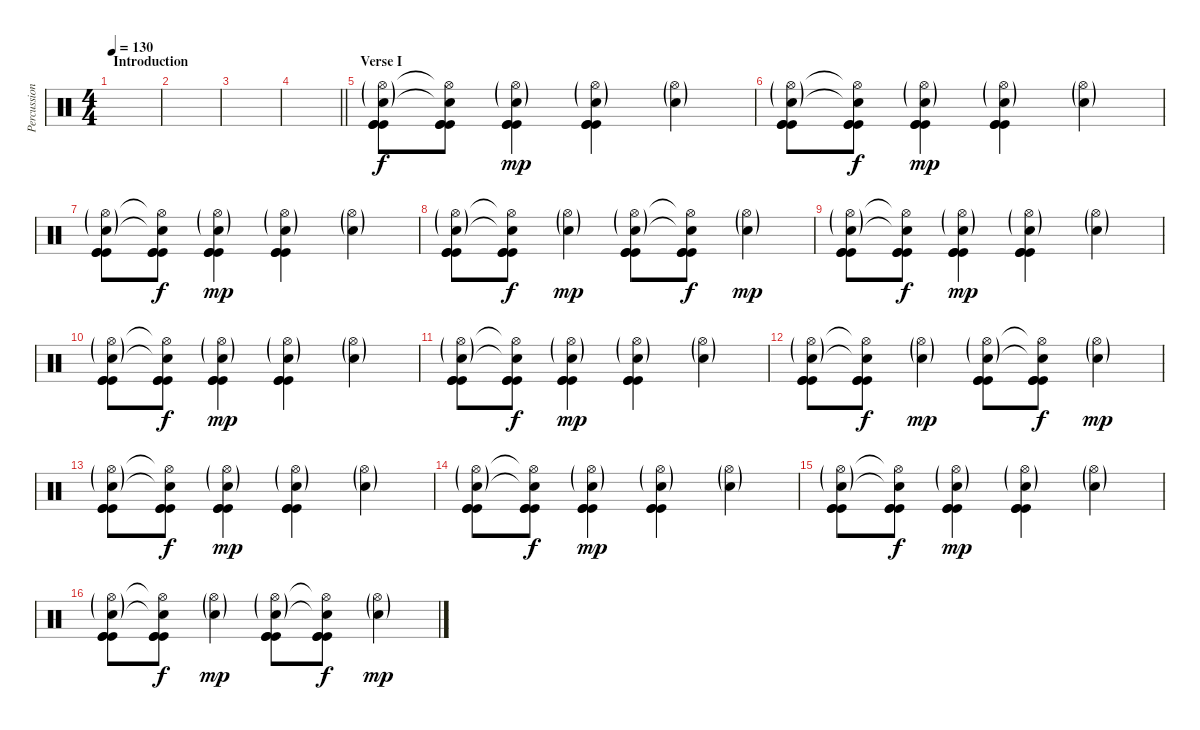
\track ("Percussion" "Percussion") {instrument percussion}
\staff {score}
\articulation defaults
\ts (4 4)
\section ("" "Introduction")
\tempo 130
\clef neutral
\ks c
|
|
|
\barLineRight lightlight
|
\section ("" "Verse I")
("Hi-Hat (open)"{g} "Snare (hit) 2"{g} "Kick (hit)" "Kick (hit)" "Kick (hit)").8 ("Hi-Hat (open)"{t} "Snare (hit) 2"{t} "Kick (hit)" "Kick (hit)" "Kick (hit)").8{dy f} ("Hi-Hat (open)"{g} "Snare (hit) 2"{g} "Kick (hit)" "Kick (hit)" "Kick (hit)").4{dy mp} ("Hi-Hat (open)"{g} "Snare (hit) 2"{g} "Kick (hit)" "Kick (hit)" "Kick (hit)").4 ("Hi-Hat (open)"{g} "Snare (hit) 2"{g}).4 |
("Hi-Hat (open)"{g} "Snare (hit) 2"{g} "Kick (hit)" "Kick (hit)" "Kick (hit)").8 ("Hi-Hat (open)"{t} "Snare (hit) 2"{t} "Kick (hit)" "Kick (hit)" "Kick (hit)").8{dy f} ("Hi-Hat (open)"{g} "Snare (hit) 2"{g} "Kick (hit)" "Kick (hit)" "Kick (hit)").4{dy mp} ("Hi-Hat (open)"{g} "Snare (hit) 2"{g} "Kick (hit)" "Kick (hit)" "Kick (hit)").4 ("Hi-Hat (open)"{g} "Snare (hit) 2"{g}).4 |
("Hi-Hat (open)"{g} "Snare (hit) 2"{g} "Kick (hit)" "Kick (hit)" "Kick (hit)").8 ("Hi-Hat (open)"{t} "Snare (hit) 2"{t} "Kick (hit)" "Kick (hit)" "Kick (hit)").8{dy f} ("Hi-Hat (open)"{g} "Snare (hit) 2"{g} "Kick (hit)" "Kick (hit)" "Kick (hit)").4{dy mp} ("Hi-Hat (open)"{g} "Snare (hit) 2"{g} "Kick (hit)" "Kick (hit)" "Kick (hit)").4 ("Hi-Hat (open)"{g} "Snare (hit) 2"{g}).4 |
("Hi-Hat (open)"{g} "Snare (hit) 2"{g} "Kick (hit)" "Kick (hit)" "Kick (hit)").8 ("Hi-Hat (open)"{t} "Snare (hit) 2"{t} "Kick (hit)" "Kick (hit)" "Kick (hit)").8{dy f} ("Hi-Hat (open)"{g} "Snare (hit) 2"{g}).4{dy mp} ("Hi-Hat (open)"{g} "Snare (hit) 2"{g} "Kick (hit)" "Kick (hit)" "Kick (hit)").8 ("Hi-Hat (open)"{t} "Snare (hit) 2"{t} "Kick (hit)" "Kick (hit)" "Kick (hit)").8{dy f} ("Hi-Hat (open)"{g} "Snare (hit) 2"{g}).4{dy mp} |
("Hi-Hat (open)"{g} "Snare (hit) 2"{g} "Kick (hit)" "Kick (hit)" "Kick (hit)").8 ("Hi-Hat (open)"{t} "Snare (hit) 2"{t} "Kick (hit)" "Kick (hit)" "Kick (hit)").8{dy f} ("Hi-Hat (open)"{g} "Snare (hit) 2"{g} "Kick (hit)" "Kick (hit)" "Kick (hit)").4{dy mp} ("Hi-Hat (open)"{g} "Snare (hit) 2"{g} "Kick (hit)" "Kick (hit)" "Kick (hit)").4 ("Hi-Hat (open)"{g} "Snare (hit) 2"{g}).4 |
("Hi-Hat (open)"{g} "Snare (hit) 2"{g} "Kick (hit)" "Kick (hit)" "Kick (hit)").8 ("Hi-Hat (open)"{t} "Snare (hit) 2"{t} "Kick (hit)" "Kick (hit)" "Kick (hit)").8{dy f} ("Hi-Hat (open)"{g} "Snare (hit) 2"{g} "Kick (hit)" "Kick (hit)" "Kick (hit)").4{dy mp} ("Hi-Hat (open)"{g} "Snare (hit) 2"{g} "Kick (hit)" "Kick (hit)" "Kick (hit)").4 ("Hi-Hat (open)"{g} "Snare (hit) 2"{g}).4 |
("Hi-Hat (open)"{g} "Snare (hit) 2"{g} "Kick (hit)" "Kick (hit)" "Kick (hit)").8 ("Hi-Hat (open)"{t} "Snare (hit) 2"{t} "Kick (hit)" "Kick (hit)" "Kick (hit)").8{dy f} ("Hi-Hat (open)"{g} "Snare (hit) 2"{g} "Kick (hit)" "Kick (hit)" "Kick (hit)").4{dy mp} ("Hi-Hat (open)"{g} "Snare (hit) 2"{g} "Kick (hit)" "Kick (hit)" "Kick (hit)").4 ("Hi-Hat (open)"{g} "Snare (hit) 2"{g}).4 |
("Hi-Hat (open)"{g} "Snare (hit) 2"{g} "Kick (hit)" "Kick (hit)" "Kick (hit)").8 ("Hi-Hat (open)"{t} "Snare (hit) 2"{t} "Kick (hit)" "Kick (hit)" "Kick (hit)").8{dy f} ("Hi-Hat (open)"{g} "Snare (hit) 2"{g}).4{dy mp} ("Hi-Hat (open)"{g} "Snare (hit) 2"{g} "Kick (hit)" "Kick (hit)" "Kick (hit)").8 ("Hi-Hat (open)"{t} "Snare (hit) 2"{t} "Kick (hit)" "Kick (hit)" "Kick (hit)").8{dy f} ("Hi-Hat (open)"{g} "Snare (hit) 2"{g}).4{dy mp} |
("Hi-Hat (open)"{g} "Snare (hit) 2"{g} "Kick (hit)" "Kick (hit)" "Kick (hit)").8 ("Hi-Hat (open)"{t} "Snare (hit) 2"{t} "Kick (hit)" "Kick (hit)" "Kick (hit)").8{dy f} ("Hi-Hat (open)"{g} "Snare (hit) 2"{g} "Kick (hit)" "Kick (hit)" "Kick (hit)").4{dy mp} ("Hi-Hat (open)"{g} "Snare (hit) 2"{g} "Kick (hit)" "Kick (hit)" "Kick (hit)").4 ("Hi-Hat (open)"{g} "Snare (hit) 2"{g}).4 |
("Hi-Hat (open)"{g} "Snare (hit) 2"{g} "Kick (hit)" "Kick (hit)" "Kick (hit)").8 ("Hi-Hat (open)"{t} "Snare (hit) 2"{t} "Kick (hit)" "Kick (hit)" "Kick (hit)").8{dy f} ("Hi-Hat (open)"{g} "Snare (hit) 2"{g} "Kick (hit)" "Kick (hit)" "Kick (hit)").4{dy mp} ("Hi-Hat (open)"{g} "Snare (hit) 2"{g} "Kick (hit)" "Kick (hit)" "Kick (hit)").4 ("Hi-Hat (open)"{g} "Snare (hit) 2"{g}).4 |
("Hi-Hat (open)"{g} "Snare (hit) 2"{g} "Kick (hit)" "Kick (hit)" "Kick (hit)").8 ("Hi-Hat (open)"{t} "Snare (hit) 2"{t} "Kick (hit)" "Kick (hit)" "Kick (hit)").8{dy f} ("Hi-Hat (open)"{g} "Snare (hit) 2"{g} "Kick (hit)" "Kick (hit)" "Kick (hit)").4{dy mp} ("Hi-Hat (open)"{g} "Snare (hit) 2"{g} "Kick (hit)" "Kick (hit)" "Kick (hit)").4 ("Hi-Hat (open)"{g} "Snare (hit) 2"{g}).4 |
("Hi-Hat (open)"{g} "Snare (hit) 2"{g} "Kick (hit)" "Kick (hit)" "Kick (hit)").8 ("Hi-Hat (open)"{t} "Snare (hit) 2"{t} "Kick (hit)" "Kick (hit)" "Kick (hit)").8{dy f} ("Hi-Hat (open)"{g} "Snare (hit) 2"{g}).4{dy mp} ("Hi-Hat (open)"{g} "Snare (hit) 2"{g} "Kick (hit)" "Kick (hit)" "Kick (hit)").8 ("Hi-Hat (open)"{t} "Snare (hit) 2"{t} "Kick (hit)" "Kick (hit)" "Kick (hit)").8{dy f} ("Hi-Hat (open)"{g} "Snare (hit) 2"{g}).4{dy mp}
